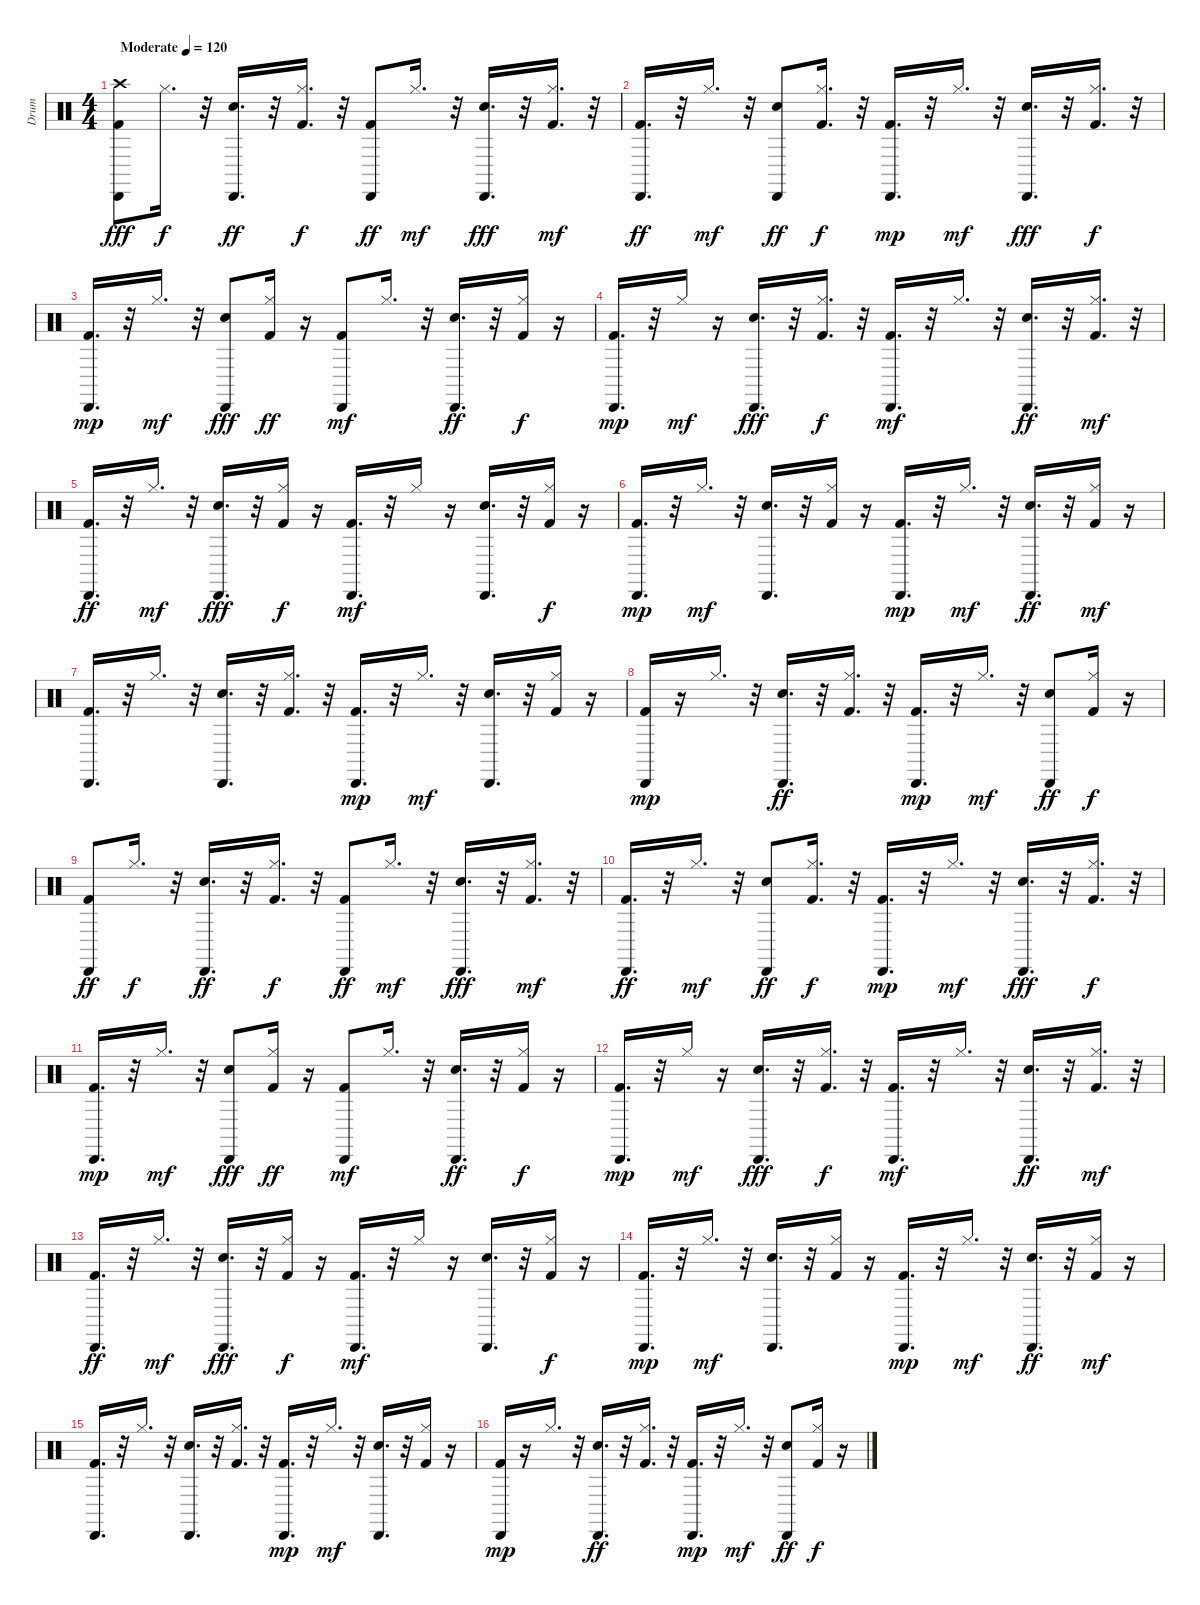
\track ("Drum" "Drum") {instrument percussion}
\staff {score}
\articulation defaults
\ts (4 4)
\tempo (120 "Moderate")
\clef neutral
\ks c
("Kick (hit) 2" "Cabasa (hit)" "Crash high (hit)").8{dy fff} "Hi-Hat (closed)".16{d dy f} r.32 ("Snare (hit) 2" "Cabasa (hit)").16{d dy ff} r.32 ("Hi-Hat (closed)" "Kick (hit) 2").16{d dy f} r.32 ("Cabasa (hit)" "Kick (hit) 2").8{dy ff} "Hi-Hat (closed)".16{d dy mf} r.32 ("Cabasa (hit)" "Snare (hit) 2").16{d dy fff} r.32 ("Hi-Hat (closed)" "Kick (hit) 2").16{d dy mf} r.32 |
("Cabasa (hit)" "Kick (hit) 2").16{d dy ff} r.32 "Hi-Hat (closed)".16{d dy mf} r.32 ("Snare (hit) 2" "Cabasa (hit)").8{dy ff} ("Kick (hit) 2" "Hi-Hat (closed)").16{d dy f} r.32 ("Kick (hit) 2" "Cabasa (hit)").16{d dy mp} r.32 "Hi-Hat (closed)".16{d dy mf} r.32 ("Snare (hit) 2" "Cabasa (hit)").16{d dy fff} r.32 ("Hi-Hat (closed)" "Kick (hit) 2").16{d dy f} r.32 |
("Kick (hit) 2" "Cabasa (hit)").16{d dy mp} r.32 "Hi-Hat (closed)".16{d dy mf} r.32 ("Snare (hit) 2" "Cabasa (hit)").8{dy fff} ("Kick (hit) 2" "Hi-Hat (closed)").16{dy ff} r.16 ("Kick (hit) 2" "Cabasa (hit)").8{dy mf} "Hi-Hat (closed)".16{d} r.32 ("Snare (hit) 2" "Cabasa (hit)").16{d dy ff} r.32 ("Kick (hit) 2" "Hi-Hat (closed)").16{dy f} r.16 |
("Cabasa (hit)" "Kick (hit) 2").16{d dy mp} r.32 "Hi-Hat (closed)".16{dy mf} r.16 ("Snare (hit) 2" "Cabasa (hit)").16{d dy fff} r.32 ("Hi-Hat (closed)" "Kick (hit) 2").16{d dy f} r.32 ("Kick (hit) 2" "Cabasa (hit)").16{d dy mf} r.32 "Hi-Hat (closed)".16{d} r.32 ("Cabasa (hit)" "Snare (hit) 2").16{d dy ff} r.32 ("Kick (hit) 2" "Hi-Hat (closed)").16{d dy mf} r.32 |
("Cabasa (hit)" "Kick (hit) 2").16{d dy ff} r.32 "Hi-Hat (closed)".16{d dy mf} r.32 ("Snare (hit) 2" "Cabasa (hit)").16{d dy fff} r.32 ("Kick (hit) 2" "Hi-Hat (closed)").16{dy f} r.16 ("Kick (hit) 2" "Cabasa (hit)").16{d dy mf} r.32 "Hi-Hat (closed)".16 r.16 ("Snare (hit) 2" "Cabasa (hit)").16{d} r.32 ("Kick (hit) 2" "Hi-Hat (closed)").16{dy f} r.16 |
("Kick (hit) 2" "Cabasa (hit)").16{d dy mp} r.32 "Hi-Hat (closed)".16{d dy mf} r.32 ("Snare (hit) 2" "Cabasa (hit)").16{d} r.32 ("Hi-Hat (closed)" "Kick (hit) 2").16 r.16 ("Kick (hit) 2" "Cabasa (hit)").16{d dy mp} r.32 "Hi-Hat (closed)".16{d dy mf} r.32 ("Snare (hit) 2" "Cabasa (hit)").16{d dy ff} r.32 ("Kick (hit) 2" "Hi-Hat (closed)").16{dy mf} r.16 |
("Kick (hit) 2" "Cabasa (hit)").16{d} r.32 "Hi-Hat (closed)".16{d} r.32 ("Snare (hit) 2" "Cabasa (hit)").16{d} r.32 ("Kick (hit) 2" "Hi-Hat (closed)").16{d} r.32 ("Kick (hit) 2" "Cabasa (hit)").16{d dy mp} r.32 "Hi-Hat (closed)".16{d dy mf} r.32 ("Snare (hit) 2" "Cabasa (hit)").16{d} r.32 ("Kick (hit) 2" "Hi-Hat (closed)").16 r.16 |
("Kick (hit) 2" "Cabasa (hit)").16{dy mp} r.16 "Hi-Hat (closed)".16{d} r.32 ("Snare (hit) 2" "Cabasa (hit)").16{d dy ff} r.32 ("Hi-Hat (closed)" "Kick (hit) 2").16{d} r.32 ("Kick (hit) 2" "Cabasa (hit)").16{d dy mp} r.32 "Hi-Hat (closed)".16{d dy mf} r.32 ("Cabasa (hit)" "Snare (hit) 2").8{dy ff} ("Kick (hit) 2" "Hi-Hat (closed)").16{dy f} r.16 |
("Kick (hit) 2" "Cabasa (hit)").8{dy ff} "Hi-Hat (closed)".16{d dy f} r.32 ("Snare (hit) 2" "Cabasa (hit)").16{d dy ff} r.32 ("Hi-Hat (closed)" "Kick (hit) 2").16{d dy f} r.32 ("Cabasa (hit)" "Kick (hit) 2").8{dy ff} "Hi-Hat (closed)".16{d dy mf} r.32 ("Cabasa (hit)" "Snare (hit) 2").16{d dy fff} r.32 ("Hi-Hat (closed)" "Kick (hit) 2").16{d dy mf} r.32 |
("Cabasa (hit)" "Kick (hit) 2").16{d dy ff} r.32 "Hi-Hat (closed)".16{d dy mf} r.32 ("Snare (hit) 2" "Cabasa (hit)").8{dy ff} ("Kick (hit) 2" "Hi-Hat (closed)").16{d dy f} r.32 ("Kick (hit) 2" "Cabasa (hit)").16{d dy mp} r.32 "Hi-Hat (closed)".16{d dy mf} r.32 ("Snare (hit) 2" "Cabasa (hit)").16{d dy fff} r.32 ("Hi-Hat (closed)" "Kick (hit) 2").16{d dy f} r.32 |
("Kick (hit) 2" "Cabasa (hit)").16{d dy mp} r.32 "Hi-Hat (closed)".16{d dy mf} r.32 ("Snare (hit) 2" "Cabasa (hit)").8{dy fff} ("Kick (hit) 2" "Hi-Hat (closed)").16{dy ff} r.16 ("Kick (hit) 2" "Cabasa (hit)").8{dy mf} "Hi-Hat (closed)".16{d} r.32 ("Snare (hit) 2" "Cabasa (hit)").16{d dy ff} r.32 ("Kick (hit) 2" "Hi-Hat (closed)").16{dy f} r.16 |
("Cabasa (hit)" "Kick (hit) 2").16{d dy mp} r.32 "Hi-Hat (closed)".16{dy mf} r.16 ("Snare (hit) 2" "Cabasa (hit)").16{d dy fff} r.32 ("Hi-Hat (closed)" "Kick (hit) 2").16{d dy f} r.32 ("Kick (hit) 2" "Cabasa (hit)").16{d dy mf} r.32 "Hi-Hat (closed)".16{d} r.32 ("Cabasa (hit)" "Snare (hit) 2").16{d dy ff} r.32 ("Kick (hit) 2" "Hi-Hat (closed)").16{d dy mf} r.32 |
("Cabasa (hit)" "Kick (hit) 2").16{d dy ff} r.32 "Hi-Hat (closed)".16{d dy mf} r.32 ("Snare (hit) 2" "Cabasa (hit)").16{d dy fff} r.32 ("Kick (hit) 2" "Hi-Hat (closed)").16{dy f} r.16 ("Kick (hit) 2" "Cabasa (hit)").16{d dy mf} r.32 "Hi-Hat (closed)".16 r.16 ("Snare (hit) 2" "Cabasa (hit)").16{d} r.32 ("Kick (hit) 2" "Hi-Hat (closed)").16{dy f} r.16 |
("Kick (hit) 2" "Cabasa (hit)").16{d dy mp} r.32 "Hi-Hat (closed)".16{d dy mf} r.32 ("Snare (hit) 2" "Cabasa (hit)").16{d} r.32 ("Hi-Hat (closed)" "Kick (hit) 2").16 r.16 ("Kick (hit) 2" "Cabasa (hit)").16{d dy mp} r.32 "Hi-Hat (closed)".16{d dy mf} r.32 ("Snare (hit) 2" "Cabasa (hit)").16{d dy ff} r.32 ("Kick (hit) 2" "Hi-Hat (closed)").16{dy mf} r.16 |
("Kick (hit) 2" "Cabasa (hit)").16{d} r.32 "Hi-Hat (closed)".16{d} r.32 ("Snare (hit) 2" "Cabasa (hit)").16{d} r.32 ("Kick (hit) 2" "Hi-Hat (closed)").16{d} r.32 ("Kick (hit) 2" "Cabasa (hit)").16{d dy mp} r.32 "Hi-Hat (closed)".16{d dy mf} r.32 ("Snare (hit) 2" "Cabasa (hit)").16{d} r.32 ("Kick (hit) 2" "Hi-Hat (closed)").16 r.16 |
("Kick (hit) 2" "Cabasa (hit)").16{dy mp} r.16 "Hi-Hat (closed)".16{d} r.32 ("Snare (hit) 2" "Cabasa (hit)").16{d dy ff} r.32 ("Hi-Hat (closed)" "Kick (hit) 2").16{d} r.32 ("Kick (hit) 2" "Cabasa (hit)").16{d dy mp} r.32 "Hi-Hat (closed)".16{d dy mf} r.32 ("Cabasa (hit)" "Snare (hit) 2").8{dy ff} ("Kick (hit) 2" "Hi-Hat (closed)").16{dy f} r.16
